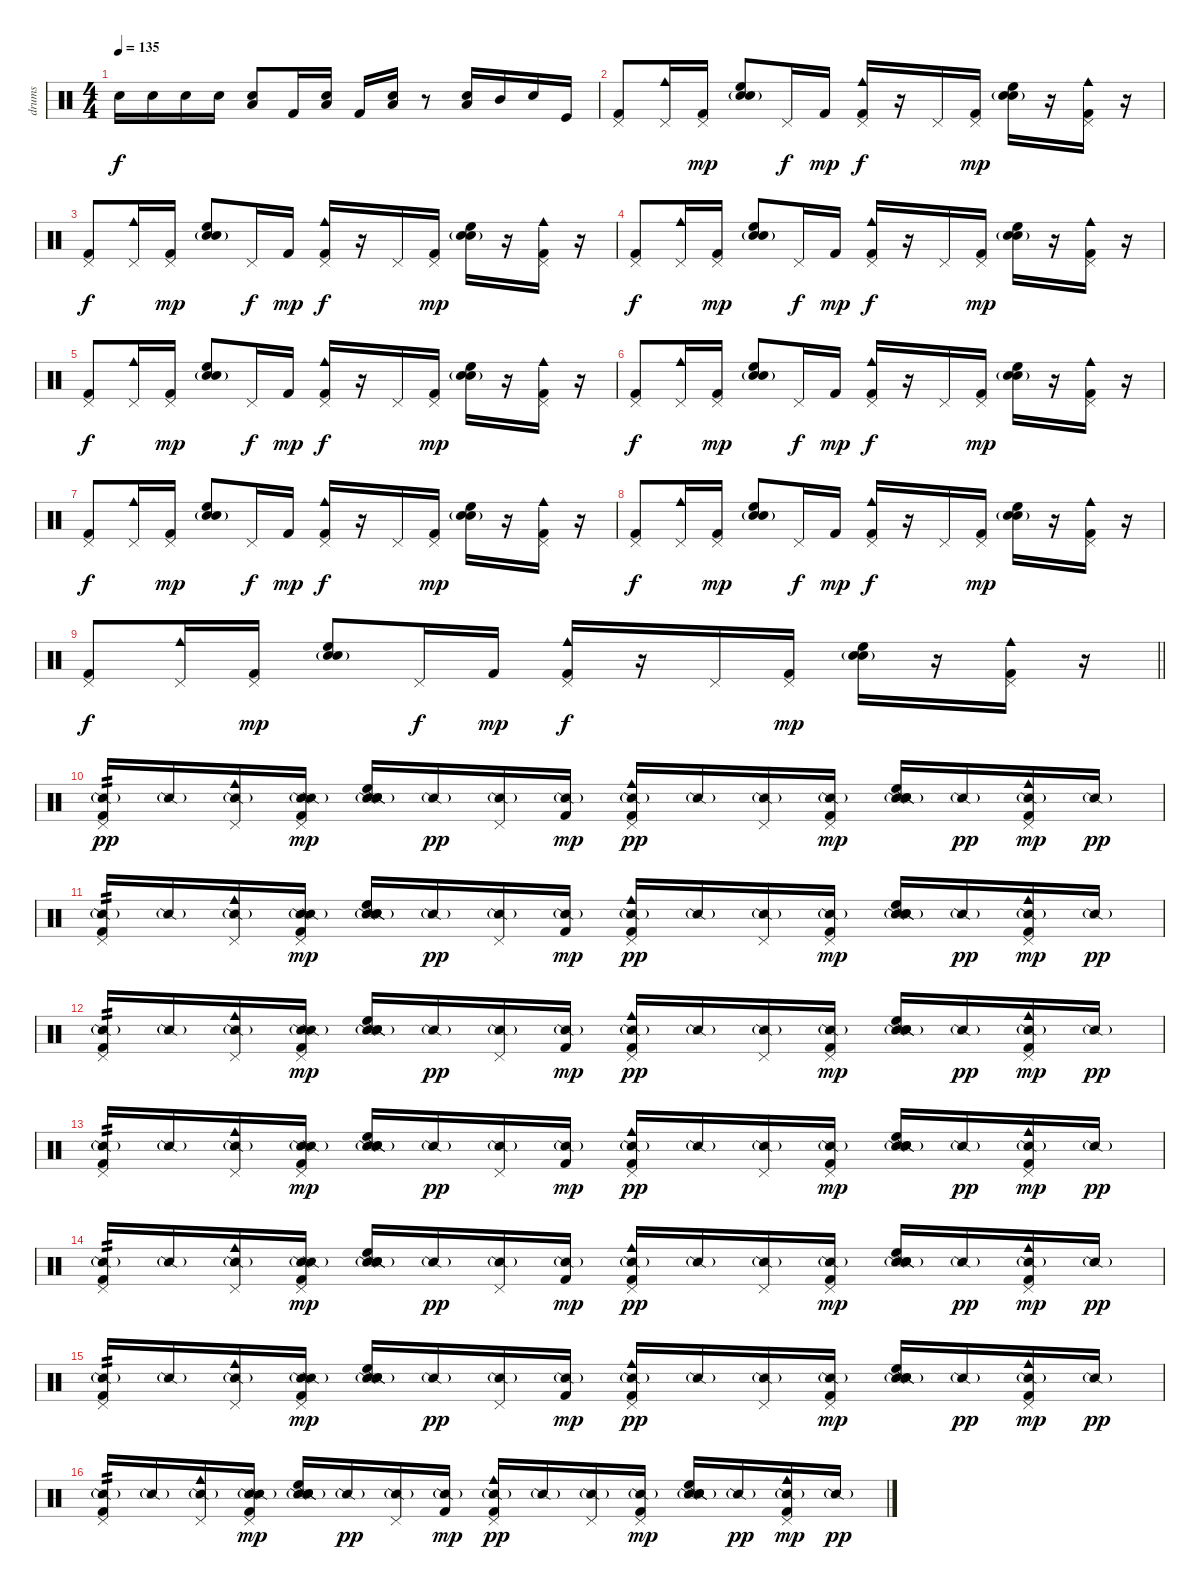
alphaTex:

\track ("drums" "drums") {instrument percussion}
\staff {score}
\articulation defaults
\ts (4 4)
\tempo 135
\clef neutral
\ks c "Snare (hit) 2".16{dy f} "Snare (hit) 2".16 "Snare (hit) 2".16 "Snare (hit) 2".16
("Snare (hit) 2" "Low Tom (hit)").8{bd 60} "Kick (hit) 2".16 ("Snare (hit) 2" "Low Tom (hit)").16{bd 60} "Kick (hit) 2".16 ("Snare (hit) 2" "Low Tom (hit)").16{bd 60} r.8 ("Low Tom (hit)" "Snare (hit) 2").16{bu 60} "Mid Tom (hit)".16 "Snare (hit) 2".16 "Kick (hit)".16 |
("Pedal Hi-Hat (hit)" "Kick (hit) 2").8 ("Cowbell medium (hit)" "Pedal Hi-Hat (hit)").16 ("Pedal Hi-Hat (hit)" "Kick (hit) 2").16{dy mp} ("Electric Snare (hit)"{g} "Hand Clap (hit)"{g} "High Floor Tom (hit)").8 "Pedal Hi-Hat (hit)".16{dy f} "Kick (hit) 2".16{dy mp} ("Cowbell medium (hit)" "Pedal Hi-Hat (hit)" "Kick (hit) 2").16{dy f} r.16 "Pedal Hi-Hat (hit)".16 ("Pedal Hi-Hat (hit)" "Kick (hit) 2").16{dy mp} ("Electric Snare (hit)"{g} "Hand Clap (hit)"{g} "High Floor Tom (hit)").16 r.16 ("Cowbell medium (hit)" "Pedal Hi-Hat (hit)" "Kick (hit) 2").16 r.16 |
("Pedal Hi-Hat (hit)" "Kick (hit) 2").8{dy f} ("Cowbell medium (hit)" "Pedal Hi-Hat (hit)").16 ("Pedal Hi-Hat (hit)" "Kick (hit) 2").16{dy mp} ("Electric Snare (hit)"{g} "Hand Clap (hit)"{g} "High Floor Tom (hit)").8 "Pedal Hi-Hat (hit)".16{dy f} "Kick (hit) 2".16{dy mp} ("Cowbell medium (hit)" "Pedal Hi-Hat (hit)" "Kick (hit) 2").16{dy f} r.16 "Pedal Hi-Hat (hit)".16 ("Pedal Hi-Hat (hit)" "Kick (hit) 2").16{dy mp} ("Electric Snare (hit)"{g} "Hand Clap (hit)"{g} "High Floor Tom (hit)").16 r.16 ("Cowbell medium (hit)" "Pedal Hi-Hat (hit)" "Kick (hit) 2").16 r.16 |
("Pedal Hi-Hat (hit)" "Kick (hit) 2").8{dy f} ("Cowbell medium (hit)" "Pedal Hi-Hat (hit)").16 ("Pedal Hi-Hat (hit)" "Kick (hit) 2").16{dy mp} ("Electric Snare (hit)"{g} "Hand Clap (hit)"{g} "High Floor Tom (hit)").8 "Pedal Hi-Hat (hit)".16{dy f} "Kick (hit) 2".16{dy mp} ("Cowbell medium (hit)" "Pedal Hi-Hat (hit)" "Kick (hit) 2").16{dy f} r.16 "Pedal Hi-Hat (hit)".16 ("Pedal Hi-Hat (hit)" "Kick (hit) 2").16{dy mp} ("Electric Snare (hit)"{g} "Hand Clap (hit)"{g} "High Floor Tom (hit)").16 r.16 ("Cowbell medium (hit)" "Pedal Hi-Hat (hit)" "Kick (hit) 2").16 r.16 |
("Pedal Hi-Hat (hit)" "Kick (hit) 2").8{dy f} ("Cowbell medium (hit)" "Pedal Hi-Hat (hit)").16 ("Pedal Hi-Hat (hit)" "Kick (hit) 2").16{dy mp} ("Electric Snare (hit)"{g} "Hand Clap (hit)"{g} "High Floor Tom (hit)").8 "Pedal Hi-Hat (hit)".16{dy f} "Kick (hit) 2".16{dy mp} ("Cowbell medium (hit)" "Pedal Hi-Hat (hit)" "Kick (hit) 2").16{dy f} r.16 "Pedal Hi-Hat (hit)".16 ("Pedal Hi-Hat (hit)" "Kick (hit) 2").16{dy mp} ("Electric Snare (hit)"{g} "Hand Clap (hit)"{g} "High Floor Tom (hit)").16 r.16 ("Cowbell medium (hit)" "Pedal Hi-Hat (hit)" "Kick (hit) 2").16 r.16 |
("Pedal Hi-Hat (hit)" "Kick (hit) 2").8{dy f} ("Cowbell medium (hit)" "Pedal Hi-Hat (hit)").16 ("Pedal Hi-Hat (hit)" "Kick (hit) 2").16{dy mp} ("Electric Snare (hit)"{g} "Hand Clap (hit)"{g} "High Floor Tom (hit)").8 "Pedal Hi-Hat (hit)".16{dy f} "Kick (hit) 2".16{dy mp} ("Cowbell medium (hit)" "Pedal Hi-Hat (hit)" "Kick (hit) 2").16{dy f} r.16 "Pedal Hi-Hat (hit)".16 ("Pedal Hi-Hat (hit)" "Kick (hit) 2").16{dy mp} ("Electric Snare (hit)"{g} "Hand Clap (hit)"{g} "High Floor Tom (hit)").16 r.16 ("Cowbell medium (hit)" "Pedal Hi-Hat (hit)" "Kick (hit) 2").16 r.16 |
("Pedal Hi-Hat (hit)" "Kick (hit) 2").8{dy f} ("Cowbell medium (hit)" "Pedal Hi-Hat (hit)").16 ("Pedal Hi-Hat (hit)" "Kick (hit) 2").16{dy mp} ("Electric Snare (hit)"{g} "Hand Clap (hit)"{g} "High Floor Tom (hit)").8 "Pedal Hi-Hat (hit)".16{dy f} "Kick (hit) 2".16{dy mp} ("Cowbell medium (hit)" "Pedal Hi-Hat (hit)" "Kick (hit) 2").16{dy f} r.16 "Pedal Hi-Hat (hit)".16 ("Pedal Hi-Hat (hit)" "Kick (hit) 2").16{dy mp} ("Electric Snare (hit)"{g} "Hand Clap (hit)"{g} "High Floor Tom (hit)").16 r.16 ("Cowbell medium (hit)" "Pedal Hi-Hat (hit)" "Kick (hit) 2").16 r.16 |
("Pedal Hi-Hat (hit)" "Kick (hit) 2").8{dy f} ("Cowbell medium (hit)" "Pedal Hi-Hat (hit)").16 ("Pedal Hi-Hat (hit)" "Kick (hit) 2").16{dy mp} ("Electric Snare (hit)"{g} "Hand Clap (hit)"{g} "High Floor Tom (hit)").8 "Pedal Hi-Hat (hit)".16{dy f} "Kick (hit) 2".16{dy mp} ("Cowbell medium (hit)" "Pedal Hi-Hat (hit)" "Kick (hit) 2").16{dy f} r.16 "Pedal Hi-Hat (hit)".16 ("Pedal Hi-Hat (hit)" "Kick (hit) 2").16{dy mp} ("Electric Snare (hit)"{g} "Hand Clap (hit)"{g} "High Floor Tom (hit)").16 r.16 ("Cowbell medium (hit)" "Pedal Hi-Hat (hit)" "Kick (hit) 2").16 r.16 |
\barLineRight lightlight
("Pedal Hi-Hat (hit)" "Kick (hit) 2").8{dy f} ("Cowbell medium (hit)" "Pedal Hi-Hat (hit)").16 ("Pedal Hi-Hat (hit)" "Kick (hit) 2").16{dy mp} ("Electric Snare (hit)"{g} "Hand Clap (hit)"{g} "High Floor Tom (hit)").8 "Pedal Hi-Hat (hit)".16{dy f} "Kick (hit) 2".16{dy mp} ("Cowbell medium (hit)" "Pedal Hi-Hat (hit)" "Kick (hit) 2").16{dy f} r.16 "Pedal Hi-Hat (hit)".16 ("Pedal Hi-Hat (hit)" "Kick (hit) 2").16{dy mp} ("Electric Snare (hit)"{g} "Hand Clap (hit)"{g} "High Floor Tom (hit)").16 r.16 ("Cowbell medium (hit)" "Pedal Hi-Hat (hit)" "Kick (hit) 2").16 r.16 |
("Snare (side stick) 2"{g} "Pedal Hi-Hat (hit)" "Kick (hit) 2").16{tp 2 dy pp} "Snare (side stick) 2"{g}.16 ("Snare (side stick) 2"{g} "Cowbell medium (hit)" "Pedal Hi-Hat (hit)").16 ("Snare (side stick) 2"{g} "Snare (side stick) 2"{g} "Pedal Hi-Hat (hit)" "Kick (hit) 2").16{dy mp} ("Snare (side stick) 2" "Snare (side stick) 2" "Snare (side stick) 2" "Electric Snare (hit)"{g} "High Floor Tom (hit)").16 "Snare (side stick) 2"{g}.16{dy pp} ("Snare (side stick) 2"{g} "Pedal Hi-Hat (hit)").16 ("Snare (side stick) 2"{g} "Kick (hit) 2").16{dy mp} ("Snare (side stick) 2"{g} "Cowbell medium (hit)" "Pedal Hi-Hat (hit)" "Kick (hit) 2").16{dy pp} "Snare (side stick) 2"{g}.16 ("Snare (side stick) 2"{g} "Pedal Hi-Hat (hit)").16 ("Snare (side stick) 2"{g} "Pedal Hi-Hat (hit)" "Kick (hit) 2").16{dy mp} ("Snare (side stick) 2" "Snare (side stick) 2" "Snare (side stick) 2" "Electric Snare (hit)"{g} "High Floor Tom (hit)").16 "Snare (side stick) 2"{g}.16{dy pp} ("Snare (side stick) 2"{g} "Cowbell medium (hit)" "Pedal Hi-Hat (hit)" "Kick (hit) 2").16{dy mp} "Snare (side stick) 2"{g}.16{dy pp} |
("Snare (side stick) 2"{g} "Pedal Hi-Hat (hit)" "Kick (hit) 2").16{tp 2} "Snare (side stick) 2"{g}.16 ("Snare (side stick) 2"{g} "Cowbell medium (hit)" "Pedal Hi-Hat (hit)").16 ("Snare (side stick) 2"{g} "Snare (side stick) 2"{g} "Pedal Hi-Hat (hit)" "Kick (hit) 2").16{dy mp} ("Snare (side stick) 2" "Snare (side stick) 2" "Snare (side stick) 2" "Electric Snare (hit)"{g} "High Floor Tom (hit)").16 "Snare (side stick) 2"{g}.16{dy pp} ("Snare (side stick) 2"{g} "Pedal Hi-Hat (hit)").16 ("Snare (side stick) 2"{g} "Kick (hit) 2").16{dy mp} ("Snare (side stick) 2"{g} "Cowbell medium (hit)" "Pedal Hi-Hat (hit)" "Kick (hit) 2").16{dy pp} "Snare (side stick) 2"{g}.16 ("Snare (side stick) 2"{g} "Pedal Hi-Hat (hit)").16 ("Snare (side stick) 2"{g} "Pedal Hi-Hat (hit)" "Kick (hit) 2").16{dy mp} ("Snare (side stick) 2" "Snare (side stick) 2" "Snare (side stick) 2" "Electric Snare (hit)"{g} "High Floor Tom (hit)").16 "Snare (side stick) 2"{g}.16{dy pp} ("Snare (side stick) 2"{g} "Cowbell medium (hit)" "Pedal Hi-Hat (hit)" "Kick (hit) 2").16{dy mp} "Snare (side stick) 2"{g}.16{dy pp} |
("Snare (side stick) 2"{g} "Pedal Hi-Hat (hit)" "Kick (hit) 2").16{tp 2} "Snare (side stick) 2"{g}.16 ("Snare (side stick) 2"{g} "Cowbell medium (hit)" "Pedal Hi-Hat (hit)").16 ("Snare (side stick) 2"{g} "Snare (side stick) 2"{g} "Pedal Hi-Hat (hit)" "Kick (hit) 2").16{dy mp} ("Snare (side stick) 2" "Snare (side stick) 2" "Snare (side stick) 2" "Electric Snare (hit)"{g} "High Floor Tom (hit)").16 "Snare (side stick) 2"{g}.16{dy pp} ("Snare (side stick) 2"{g} "Pedal Hi-Hat (hit)").16 ("Snare (side stick) 2"{g} "Kick (hit) 2").16{dy mp} ("Snare (side stick) 2"{g} "Cowbell medium (hit)" "Pedal Hi-Hat (hit)" "Kick (hit) 2").16{dy pp} "Snare (side stick) 2"{g}.16 ("Snare (side stick) 2"{g} "Pedal Hi-Hat (hit)").16 ("Snare (side stick) 2"{g} "Pedal Hi-Hat (hit)" "Kick (hit) 2").16{dy mp} ("Snare (side stick) 2" "Snare (side stick) 2" "Snare (side stick) 2" "Electric Snare (hit)"{g} "High Floor Tom (hit)").16 "Snare (side stick) 2"{g}.16{dy pp} ("Snare (side stick) 2"{g} "Cowbell medium (hit)" "Pedal Hi-Hat (hit)" "Kick (hit) 2").16{dy mp} "Snare (side stick) 2"{g}.16{dy pp} |
("Snare (side stick) 2"{g} "Pedal Hi-Hat (hit)" "Kick (hit) 2").16{tp 2} "Snare (side stick) 2"{g}.16 ("Snare (side stick) 2"{g} "Cowbell medium (hit)" "Pedal Hi-Hat (hit)").16 ("Snare (side stick) 2"{g} "Snare (side stick) 2"{g} "Pedal Hi-Hat (hit)" "Kick (hit) 2").16{dy mp} ("Snare (side stick) 2" "Snare (side stick) 2" "Snare (side stick) 2" "Electric Snare (hit)"{g} "High Floor Tom (hit)").16 "Snare (side stick) 2"{g}.16{dy pp} ("Snare (side stick) 2"{g} "Pedal Hi-Hat (hit)").16 ("Snare (side stick) 2"{g} "Kick (hit) 2").16{dy mp} ("Snare (side stick) 2"{g} "Cowbell medium (hit)" "Pedal Hi-Hat (hit)" "Kick (hit) 2").16{dy pp} "Snare (side stick) 2"{g}.16 ("Snare (side stick) 2"{g} "Pedal Hi-Hat (hit)").16 ("Snare (side stick) 2"{g} "Pedal Hi-Hat (hit)" "Kick (hit) 2").16{dy mp} ("Snare (side stick) 2" "Snare (side stick) 2" "Snare (side stick) 2" "Electric Snare (hit)"{g} "High Floor Tom (hit)").16 "Snare (side stick) 2"{g}.16{dy pp} ("Snare (side stick) 2"{g} "Cowbell medium (hit)" "Pedal Hi-Hat (hit)" "Kick (hit) 2").16{dy mp} "Snare (side stick) 2"{g}.16{dy pp} |
("Snare (side stick) 2"{g} "Pedal Hi-Hat (hit)" "Kick (hit) 2").16{tp 2} "Snare (side stick) 2"{g}.16 ("Snare (side stick) 2"{g} "Cowbell medium (hit)" "Pedal Hi-Hat (hit)").16 ("Snare (side stick) 2"{g} "Snare (side stick) 2"{g} "Pedal Hi-Hat (hit)" "Kick (hit) 2").16{dy mp} ("Snare (side stick) 2" "Snare (side stick) 2" "Snare (side stick) 2" "Electric Snare (hit)"{g} "High Floor Tom (hit)").16 "Snare (side stick) 2"{g}.16{dy pp} ("Snare (side stick) 2"{g} "Pedal Hi-Hat (hit)").16 ("Snare (side stick) 2"{g} "Kick (hit) 2").16{dy mp} ("Snare (side stick) 2"{g} "Cowbell medium (hit)" "Pedal Hi-Hat (hit)" "Kick (hit) 2").16{dy pp} "Snare (side stick) 2"{g}.16 ("Snare (side stick) 2"{g} "Pedal Hi-Hat (hit)").16 ("Snare (side stick) 2"{g} "Pedal Hi-Hat (hit)" "Kick (hit) 2").16{dy mp} ("Snare (side stick) 2" "Snare (side stick) 2" "Snare (side stick) 2" "Electric Snare (hit)"{g} "High Floor Tom (hit)").16 "Snare (side stick) 2"{g}.16{dy pp} ("Snare (side stick) 2"{g} "Cowbell medium (hit)" "Pedal Hi-Hat (hit)" "Kick (hit) 2").16{dy mp} "Snare (side stick) 2"{g}.16{dy pp} |
("Snare (side stick) 2"{g} "Pedal Hi-Hat (hit)" "Kick (hit) 2").16{tp 2} "Snare (side stick) 2"{g}.16 ("Snare (side stick) 2"{g} "Cowbell medium (hit)" "Pedal Hi-Hat (hit)").16 ("Snare (side stick) 2"{g} "Snare (side stick) 2"{g} "Pedal Hi-Hat (hit)" "Kick (hit) 2").16{dy mp} ("Snare (side stick) 2" "Snare (side stick) 2" "Snare (side stick) 2" "Electric Snare (hit)"{g} "High Floor Tom (hit)").16 "Snare (side stick) 2"{g}.16{dy pp} ("Snare (side stick) 2"{g} "Pedal Hi-Hat (hit)").16 ("Snare (side stick) 2"{g} "Kick (hit) 2").16{dy mp} ("Snare (side stick) 2"{g} "Cowbell medium (hit)" "Pedal Hi-Hat (hit)" "Kick (hit) 2").16{dy pp} "Snare (side stick) 2"{g}.16 ("Snare (side stick) 2"{g} "Pedal Hi-Hat (hit)").16 ("Snare (side stick) 2"{g} "Pedal Hi-Hat (hit)" "Kick (hit) 2").16{dy mp} ("Snare (side stick) 2" "Snare (side stick) 2" "Snare (side stick) 2" "Electric Snare (hit)"{g} "High Floor Tom (hit)").16 "Snare (side stick) 2"{g}.16{dy pp} ("Snare (side stick) 2"{g} "Cowbell medium (hit)" "Pedal Hi-Hat (hit)" "Kick (hit) 2").16{dy mp} "Snare (side stick) 2"{g}.16{dy pp} |
("Snare (side stick) 2"{g} "Pedal Hi-Hat (hit)" "Kick (hit) 2").16{tp 2} "Snare (side stick) 2"{g}.16 ("Snare (side stick) 2"{g} "Cowbell medium (hit)" "Pedal Hi-Hat (hit)").16 ("Snare (side stick) 2"{g} "Snare (side stick) 2"{g} "Pedal Hi-Hat (hit)" "Kick (hit) 2").16{dy mp} ("Snare (side stick) 2" "Snare (side stick) 2" "Snare (side stick) 2" "Electric Snare (hit)"{g} "High Floor Tom (hit)").16 "Snare (side stick) 2"{g}.16{dy pp} ("Snare (side stick) 2"{g} "Pedal Hi-Hat (hit)").16 ("Snare (side stick) 2"{g} "Kick (hit) 2").16{dy mp} ("Snare (side stick) 2"{g} "Cowbell medium (hit)" "Pedal Hi-Hat (hit)" "Kick (hit) 2").16{dy pp} "Snare (side stick) 2"{g}.16 ("Snare (side stick) 2"{g} "Pedal Hi-Hat (hit)").16 ("Snare (side stick) 2"{g} "Pedal Hi-Hat (hit)" "Kick (hit) 2").16{dy mp} ("Snare (side stick) 2" "Snare (side stick) 2" "Snare (side stick) 2" "Electric Snare (hit)"{g} "High Floor Tom (hit)").16 "Snare (side stick) 2"{g}.16{dy pp} ("Snare (side stick) 2"{g} "Cowbell medium (hit)" "Pedal Hi-Hat (hit)" "Kick (hit) 2").16{dy mp} "Snare (side stick) 2"{g}.16{dy pp}
